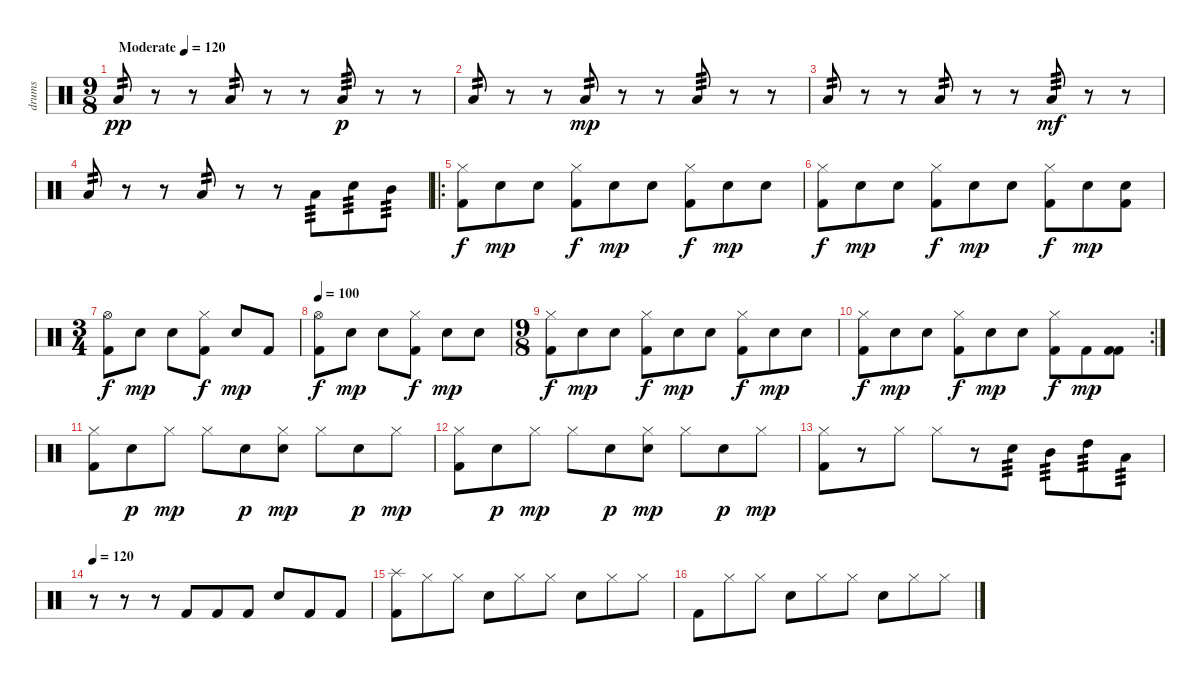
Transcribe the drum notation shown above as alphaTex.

\track ("drums" "drums") {instrument percussion}
\staff {score}
\articulation defaults
\ts (9 8)
\tempo (120 "Moderate")
\clef neutral
\ks c "Low Tom (hit)".8{tp 2 dy pp}
r.8 r.8 "Low Tom (hit)".8{tp 2} r.8 r.8 "Low Tom (hit)".8{tp 3 dy p} r.8 r.8 |
"Low Tom (hit)".8{tp 2} r.8 r.8 "Low Tom (hit)".8{tp 2 dy mp} r.8 r.8 "Low Tom (hit)".8{tp 3} r.8 r.8 |
"Low Tom (hit)".8{tp 2} r.8 r.8 "Low Tom (hit)".8{tp 2} r.8 r.8 "Low Tom (hit)".8{tp 3 dy mf} r.8 r.8 |
"Low Tom (hit)".8{tp 2} r.8 r.8 "Low Tom (hit)".8{tp 2} r.8 r.8 "Low Tom (hit)".8{tp 3} "Snare (hit) 2".8{tp 3} "Mid Tom (hit)".8{tp 3} |
\ro
("Hi-Hat (closed)" "Kick (hit) 2").8{dy f} "Snare (hit) 2".8{dy mp} "Snare (hit) 2".8 ("Hi-Hat (closed)" "Kick (hit) 2").8{dy f} "Snare (hit) 2".8{dy mp} "Snare (hit) 2".8 ("Hi-Hat (closed)" "Kick (hit) 2").8{dy f} "Snare (hit) 2".8{dy mp} "Snare (hit) 2".8 |
("Hi-Hat (closed)" "Kick (hit) 2").8{dy f} "Snare (hit) 2".8{dy mp} "Snare (hit) 2".8 ("Hi-Hat (closed)" "Kick (hit) 2").8{dy f} "Snare (hit) 2".8{dy mp} "Snare (hit) 2".8 ("Hi-Hat (closed)" "Kick (hit) 2").8{dy f} "Snare (hit) 2".8{dy mp} ("Snare (hit) 2" "Kick (hit) 2").8 |
\ts (3 4)
("Hi-Hat (open)" "Kick (hit) 2").8{dy f} "Snare (hit) 2".8{dy mp} "Snare (hit) 2".8 ("Hi-Hat (closed)" "Kick (hit) 2").8{dy f} "Snare (hit) 2".8{dy mp} "Kick (hit) 2".8 |
\tempo 100
("Hi-Hat (open)" "Kick (hit) 2").8{dy f} "Snare (hit) 2".8{dy mp} "Snare (hit) 2".8 ("Hi-Hat (closed)" "Kick (hit) 2").8{dy f} "Snare (hit) 2".8{dy mp} "Snare (hit) 2".8 |
\ts (9 8)
("Hi-Hat (closed)" "Kick (hit) 2").8{dy f} "Snare (hit) 2".8{dy mp} "Snare (hit) 2".8 ("Hi-Hat (closed)" "Kick (hit) 2").8{dy f} "Snare (hit) 2".8{dy mp} "Snare (hit) 2".8 ("Hi-Hat (closed)" "Kick (hit) 2").8{dy f} "Snare (hit) 2".8{dy mp} "Snare (hit) 2".8 |
\rc 2
("Hi-Hat (closed)" "Kick (hit) 2").8{dy f} "Snare (hit) 2".8{dy mp} "Snare (hit) 2".8 ("Hi-Hat (closed)" "Kick (hit) 2").8{dy f} "Snare (hit) 2".8{dy mp} "Snare (hit) 2".8 ("Hi-Hat (closed)" "Kick (hit) 2").8{dy f} "Kick (hit) 2".8{dy mp} ("Kick (hit) 2" "Kick (hit) 2").8 |
("Hi-Hat (closed)" "Kick (hit) 2").8 "Snare (hit) 2".8{dy p} "Hi-Hat (closed)".8{dy mp} "Hi-Hat (closed)".8 "Snare (hit) 2".8{dy p} ("Hi-Hat (closed)" "Snare (hit) 2").8{dy mp} "Hi-Hat (closed)".8 "Snare (hit) 2".8{dy p} "Hi-Hat (closed)".8{dy mp} |
("Hi-Hat (closed)" "Kick (hit) 2").8 "Snare (hit) 2".8{dy p} "Hi-Hat (closed)".8{dy mp} "Hi-Hat (closed)".8 "Snare (hit) 2".8{dy p} ("Hi-Hat (closed)" "Snare (hit) 2").8{dy mp} "Hi-Hat (closed)".8 "Snare (hit) 2".8{dy p} "Hi-Hat (closed)".8{dy mp} |
("Hi-Hat (closed)" "Kick (hit) 2").8 r.8 "Hi-Hat (closed)".8 "Hi-Hat (closed)".8 r.8 "Snare (hit) 2".8{tp 3} "Mid Tom (hit)".8{tp 3} "High Tom (hit)".8{tp 3} "Low Tom (hit)".8{tp 3} |
\tempo 120
r.8 r.8 r.8 "Kick (hit) 2".8 "Kick (hit) 2".8 "Kick (hit) 2".8 "Snare (hit) 2".8 "Kick (hit) 2".8 "Kick (hit) 2".8 |
("Splash (hit)" "Kick (hit) 2").8 "Hi-Hat (closed)".8 "Hi-Hat (closed)".8 "Snare (hit) 2".8 "Hi-Hat (closed)".8 "Hi-Hat (closed)".8 "Snare (hit) 2".8 "Hi-Hat (closed)".8 "Hi-Hat (closed)".8 |
"Kick (hit) 2".8 "Hi-Hat (closed)".8 "Hi-Hat (closed)".8 "Snare (hit) 2".8 "Hi-Hat (closed)".8 "Hi-Hat (closed)".8 "Snare (hit) 2".8 "Hi-Hat (closed)".8 "Hi-Hat (closed)".8
